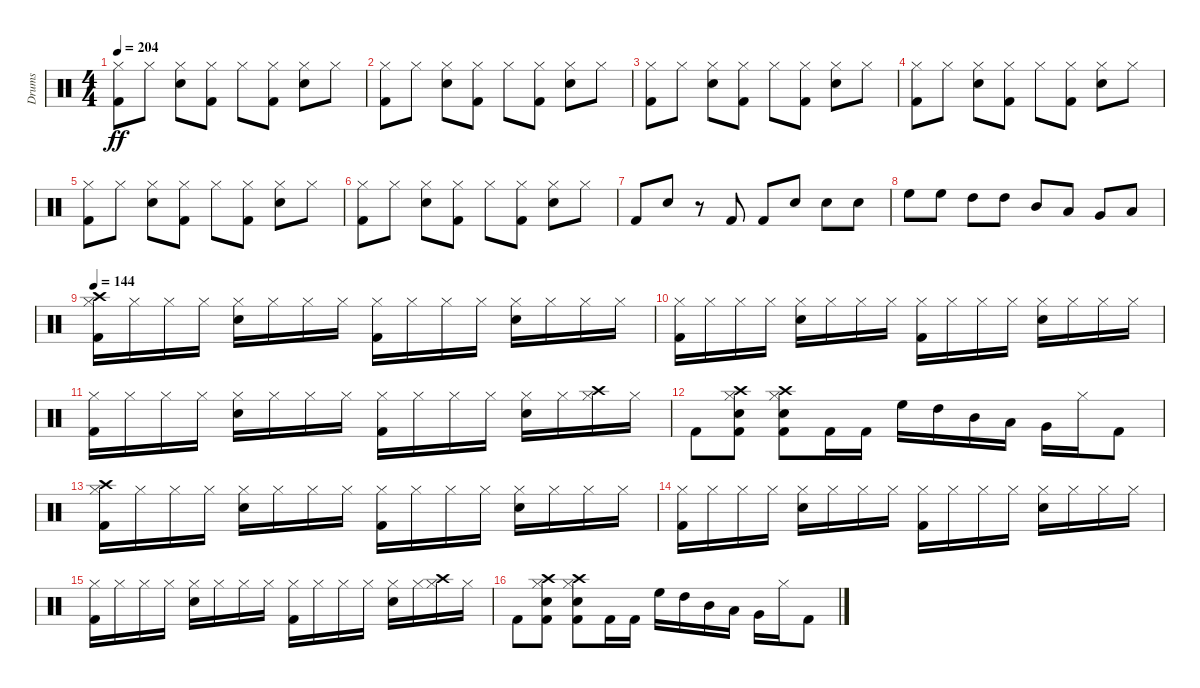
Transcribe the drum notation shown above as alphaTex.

\track ("Drums" "Drums") {instrument percussion}
\staff {score}
\articulation defaults
\ts (4 4)
\tempo 204
\clef neutral
\ks c
("Kick (hit) 2" "Hi-Hat (closed)").8{dy ff} "Hi-Hat (closed)".8 ("Snare (hit) 2" "Hi-Hat (closed)").8 ("Kick (hit) 2" "Hi-Hat (closed)").8 "Hi-Hat (closed)".8 ("Kick (hit) 2" "Hi-Hat (closed)").8 ("Snare (hit) 2" "Hi-Hat (closed)").8 "Hi-Hat (closed)".8 |
("Kick (hit) 2" "Hi-Hat (closed)").8 "Hi-Hat (closed)".8 ("Snare (hit) 2" "Hi-Hat (closed)").8 ("Kick (hit) 2" "Hi-Hat (closed)").8 "Hi-Hat (closed)".8 ("Kick (hit) 2" "Hi-Hat (closed)").8 ("Snare (hit) 2" "Hi-Hat (closed)").8 "Hi-Hat (closed)".8 |
("Kick (hit) 2" "Hi-Hat (closed)").8 "Hi-Hat (closed)".8 ("Snare (hit) 2" "Hi-Hat (closed)").8 ("Kick (hit) 2" "Hi-Hat (closed)").8 "Hi-Hat (closed)".8 ("Kick (hit) 2" "Hi-Hat (closed)").8 ("Snare (hit) 2" "Hi-Hat (closed)").8 "Hi-Hat (closed)".8 |
("Kick (hit) 2" "Hi-Hat (closed)").8 "Hi-Hat (closed)".8 ("Snare (hit) 2" "Hi-Hat (closed)").8 ("Kick (hit) 2" "Hi-Hat (closed)").8 "Hi-Hat (closed)".8 ("Kick (hit) 2" "Hi-Hat (closed)").8 ("Snare (hit) 2" "Hi-Hat (closed)").8 "Hi-Hat (closed)".8 |
("Kick (hit) 2" "Hi-Hat (closed)").8 "Hi-Hat (closed)".8 ("Snare (hit) 2" "Hi-Hat (closed)").8 ("Kick (hit) 2" "Hi-Hat (closed)").8 "Hi-Hat (closed)".8 ("Kick (hit) 2" "Hi-Hat (closed)").8 ("Snare (hit) 2" "Hi-Hat (closed)").8 "Hi-Hat (closed)".8 |
("Kick (hit) 2" "Hi-Hat (closed)").8 "Hi-Hat (closed)".8 ("Snare (hit) 2" "Hi-Hat (closed)").8 ("Kick (hit) 2" "Hi-Hat (closed)").8 "Hi-Hat (closed)".8 ("Kick (hit) 2" "Hi-Hat (closed)").8 ("Snare (hit) 2" "Hi-Hat (closed)").8 "Hi-Hat (closed)".8 |
"Kick (hit) 2".8 "Snare (hit) 2".8 r.8 "Kick (hit) 2".8 "Kick (hit) 2".8 "Snare (hit) 2".8 "Snare (hit) 2".8 "Snare (hit) 2".8 |
"High Floor Tom (hit)".8 "High Floor Tom (hit)".8 "High Tom (hit)".8 "High Tom (hit)".8 "Mid Tom (hit)".8 "Low Tom (hit)".8 "Very Low Tom (hit)".8 "Low Floor Tom (hit)".8 |
\tempo 144
("Kick (hit) 2" "Hi-Hat (closed)" "Crash high (hit)").16 "Hi-Hat (closed)".16 "Hi-Hat (closed)".16 "Hi-Hat (closed)".16 ("Snare (hit) 2" "Hi-Hat (closed)").16 "Hi-Hat (closed)".16 "Hi-Hat (closed)".16 "Hi-Hat (closed)".16 ("Kick (hit) 2" "Hi-Hat (closed)").16 "Hi-Hat (closed)".16 "Hi-Hat (closed)".16 "Hi-Hat (closed)".16 ("Snare (hit) 2" "Hi-Hat (closed)").16 "Hi-Hat (closed)".16 "Hi-Hat (closed)".16 "Hi-Hat (closed)".16 |
("Kick (hit) 2" "Hi-Hat (closed)").16 "Hi-Hat (closed)".16 "Hi-Hat (closed)".16 "Hi-Hat (closed)".16 ("Snare (hit) 2" "Hi-Hat (closed)").16 "Hi-Hat (closed)".16 "Hi-Hat (closed)".16 "Hi-Hat (closed)".16 ("Kick (hit) 2" "Hi-Hat (closed)").16 "Hi-Hat (closed)".16 "Hi-Hat (closed)".16 "Hi-Hat (closed)".16 ("Snare (hit) 2" "Hi-Hat (closed)").16 "Hi-Hat (closed)".16 "Hi-Hat (closed)".16 "Hi-Hat (closed)".16 |
("Kick (hit) 2" "Hi-Hat (closed)").16 "Hi-Hat (closed)".16 "Hi-Hat (closed)".16 "Hi-Hat (closed)".16 ("Snare (hit) 2" "Hi-Hat (closed)").16 "Hi-Hat (closed)".16 "Hi-Hat (closed)".16 "Hi-Hat (closed)".16 ("Kick (hit) 2" "Hi-Hat (closed)").16 "Hi-Hat (closed)".16 "Hi-Hat (closed)".16 "Hi-Hat (closed)".16 ("Snare (hit) 2" "Hi-Hat (closed)").16 "Hi-Hat (closed)".16 ("Hi-Hat (closed)" "Crash high (hit)").16 "Hi-Hat (closed)".16 |
"Kick (hit) 2".8 ("Kick (hit) 2" "Snare (hit) 2" "Hi-Hat (closed)" "Crash high (hit)").8 ("Kick (hit) 2" "Snare (hit) 2" "Hi-Hat (closed)" "Crash high (hit)").8 "Kick (hit) 2".16 "Kick (hit) 2".16 "High Floor Tom (hit)".16 "High Tom (hit)".16 "Mid Tom (hit)".16 "Low Tom (hit)".16 "Very Low Tom (hit)".16 "Hi-Hat (closed)".16 "Kick (hit) 2".8 |
("Kick (hit) 2" "Hi-Hat (closed)" "Crash high (hit)").16 "Hi-Hat (closed)".16 "Hi-Hat (closed)".16 "Hi-Hat (closed)".16 ("Snare (hit) 2" "Hi-Hat (closed)").16 "Hi-Hat (closed)".16 "Hi-Hat (closed)".16 "Hi-Hat (closed)".16 ("Kick (hit) 2" "Hi-Hat (closed)").16 "Hi-Hat (closed)".16 "Hi-Hat (closed)".16 "Hi-Hat (closed)".16 ("Snare (hit) 2" "Hi-Hat (closed)").16 "Hi-Hat (closed)".16 "Hi-Hat (closed)".16 "Hi-Hat (closed)".16 |
("Kick (hit) 2" "Hi-Hat (closed)").16 "Hi-Hat (closed)".16 "Hi-Hat (closed)".16 "Hi-Hat (closed)".16 ("Snare (hit) 2" "Hi-Hat (closed)").16 "Hi-Hat (closed)".16 "Hi-Hat (closed)".16 "Hi-Hat (closed)".16 ("Kick (hit) 2" "Hi-Hat (closed)").16 "Hi-Hat (closed)".16 "Hi-Hat (closed)".16 "Hi-Hat (closed)".16 ("Snare (hit) 2" "Hi-Hat (closed)").16 "Hi-Hat (closed)".16 "Hi-Hat (closed)".16 "Hi-Hat (closed)".16 |
("Kick (hit) 2" "Hi-Hat (closed)").16 "Hi-Hat (closed)".16 "Hi-Hat (closed)".16 "Hi-Hat (closed)".16 ("Snare (hit) 2" "Hi-Hat (closed)").16 "Hi-Hat (closed)".16 "Hi-Hat (closed)".16 "Hi-Hat (closed)".16 ("Kick (hit) 2" "Hi-Hat (closed)").16 "Hi-Hat (closed)".16 "Hi-Hat (closed)".16 "Hi-Hat (closed)".16 ("Snare (hit) 2" "Hi-Hat (closed)").16 "Hi-Hat (closed)".16 ("Hi-Hat (closed)" "Crash high (hit)").16 "Hi-Hat (closed)".16 |
"Kick (hit) 2".8 ("Kick (hit) 2" "Snare (hit) 2" "Hi-Hat (closed)" "Crash high (hit)").8 ("Kick (hit) 2" "Snare (hit) 2" "Hi-Hat (closed)" "Crash high (hit)").8 "Kick (hit) 2".16 "Kick (hit) 2".16 "High Floor Tom (hit)".16 "High Tom (hit)".16 "Mid Tom (hit)".16 "Low Tom (hit)".16 "Very Low Tom (hit)".16 "Hi-Hat (closed)".16 "Kick (hit) 2".8
